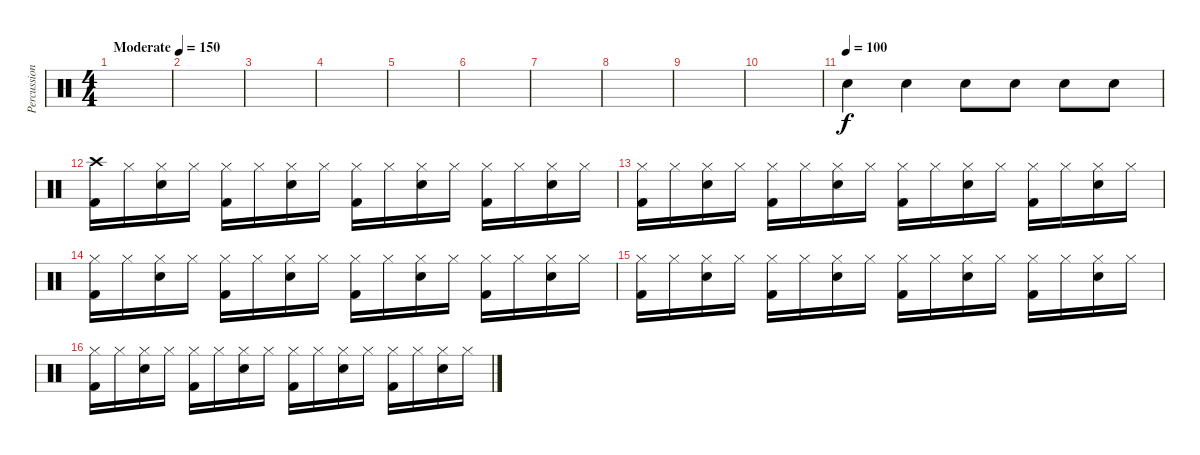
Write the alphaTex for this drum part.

\track ("Percussion" "Percussion") {instrument percussion}
\staff {score}
\articulation defaults
\ts (4 4)
\tempo (150 "Moderate")
\clef neutral
\ks c
|
|
|
|
|
|
|
|
|
|
\tempo (100)
"Snare (hit) 2".4 "Snare (hit) 2".4 "Snare (hit) 2".8 "Snare (hit) 2".8 "Snare (hit) 2".8 "Snare (hit) 2".8 |
("Crash high (hit)" "Kick (hit) 2").16 "Hi-Hat (closed)".16 ("Hi-Hat (closed)" "Snare (hit) 2").16 "Hi-Hat (closed)".16 ("Hi-Hat (closed)" "Kick (hit) 2").16 "Hi-Hat (closed)".16 ("Hi-Hat (closed)" "Snare (hit) 2").16 "Hi-Hat (closed)".16 ("Hi-Hat (closed)" "Kick (hit) 2").16 "Hi-Hat (closed)".16 ("Hi-Hat (closed)" "Snare (hit) 2").16 "Hi-Hat (closed)".16 ("Hi-Hat (closed)" "Kick (hit) 2").16 "Hi-Hat (closed)".16 ("Hi-Hat (closed)" "Snare (hit) 2").16 "Hi-Hat (closed)".16 |
("Hi-Hat (closed)" "Kick (hit) 2").16 "Hi-Hat (closed)".16 ("Hi-Hat (closed)" "Snare (hit) 2").16 "Hi-Hat (closed)".16 ("Hi-Hat (closed)" "Kick (hit) 2").16 "Hi-Hat (closed)".16 ("Hi-Hat (closed)" "Snare (hit) 2").16 "Hi-Hat (closed)".16 ("Hi-Hat (closed)" "Kick (hit) 2").16 "Hi-Hat (closed)".16 ("Hi-Hat (closed)" "Snare (hit) 2").16 "Hi-Hat (closed)".16 ("Hi-Hat (closed)" "Kick (hit) 2").16 "Hi-Hat (closed)".16 ("Hi-Hat (closed)" "Snare (hit) 2").16 "Hi-Hat (closed)".16 |
("Hi-Hat (closed)" "Kick (hit) 2").16 "Hi-Hat (closed)".16 ("Hi-Hat (closed)" "Snare (hit) 2").16 "Hi-Hat (closed)".16 ("Hi-Hat (closed)" "Kick (hit) 2").16 "Hi-Hat (closed)".16 ("Hi-Hat (closed)" "Snare (hit) 2").16 "Hi-Hat (closed)".16 ("Hi-Hat (closed)" "Kick (hit) 2").16 "Hi-Hat (closed)".16 ("Hi-Hat (closed)" "Snare (hit) 2").16 "Hi-Hat (closed)".16 ("Hi-Hat (closed)" "Kick (hit) 2").16 "Hi-Hat (closed)".16 ("Hi-Hat (closed)" "Snare (hit) 2").16 "Hi-Hat (closed)".16 |
("Hi-Hat (closed)" "Kick (hit) 2").16 "Hi-Hat (closed)".16 ("Hi-Hat (closed)" "Snare (hit) 2").16 "Hi-Hat (closed)".16 ("Hi-Hat (closed)" "Kick (hit) 2").16 "Hi-Hat (closed)".16 ("Hi-Hat (closed)" "Snare (hit) 2").16 "Hi-Hat (closed)".16 ("Hi-Hat (closed)" "Kick (hit) 2").16 "Hi-Hat (closed)".16 ("Hi-Hat (closed)" "Snare (hit) 2").16 "Hi-Hat (closed)".16 ("Hi-Hat (closed)" "Kick (hit) 2").16 "Hi-Hat (closed)".16 ("Hi-Hat (closed)" "Snare (hit) 2").16 "Hi-Hat (closed)".16 |
("Hi-Hat (closed)" "Kick (hit) 2").16 "Hi-Hat (closed)".16 ("Hi-Hat (closed)" "Snare (hit) 2").16 "Hi-Hat (closed)".16 ("Hi-Hat (closed)" "Kick (hit) 2").16 "Hi-Hat (closed)".16 ("Hi-Hat (closed)" "Snare (hit) 2").16 "Hi-Hat (closed)".16 ("Hi-Hat (closed)" "Kick (hit) 2").16 "Hi-Hat (closed)".16 ("Hi-Hat (closed)" "Snare (hit) 2").16 "Hi-Hat (closed)".16 ("Hi-Hat (closed)" "Kick (hit) 2").16 "Hi-Hat (closed)".16 ("Hi-Hat (closed)" "Snare (hit) 2").16 "Hi-Hat (closed)".16
